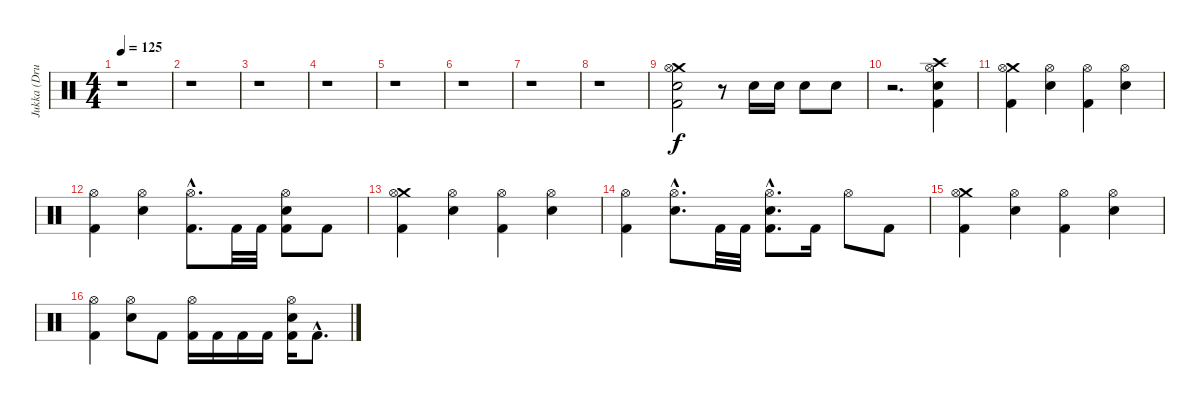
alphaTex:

\track ("Jukka (Drums)" "Jukka (Dru") {instrument percussion}
\staff {score}
\articulation defaults
\ts (4 4)
\tempo 125
\clef neutral
\ks c
r.1{dy f} |
r.1 |
r.1 |
r.1 |
r.1 |
r.1 |
r.1 |
r.1 |
("Crash medium (hit)" "Hi-Hat (open)" "Electric Snare (hit)" "Kick (hit) 2").2 r.8 "Electric Snare (hit)".16 "Electric Snare (hit)".16 "Electric Snare (hit)".8 "Electric Snare (hit)".8 |
r.2{d} ("Crash high (hit)" "Hi-Hat (open)" "Electric Snare (hit)" "Kick (hit) 2").4 |
("Crash medium (hit)" "Hi-Hat (open)" "Kick (hit) 2").4 ("Hi-Hat (open)" "Electric Snare (hit)").4 ("Hi-Hat (open)" "Kick (hit) 2").4 ("Hi-Hat (open)" "Electric Snare (hit)").4 |
("Hi-Hat (open)" "Kick (hit) 2").4 ("Hi-Hat (open)" "Electric Snare (hit)").4 ("Hi-Hat (open)"{hac} "Kick (hit) 2"{hac}).8{d} "Kick (hit) 2".32 "Kick (hit) 2".32 ("Hi-Hat (open)" "Electric Snare (hit)" "Kick (hit) 2").8 "Kick (hit) 2".8 |
("Crash medium (hit)" "Hi-Hat (open)" "Kick (hit) 2").4 ("Hi-Hat (open)" "Electric Snare (hit)").4 ("Hi-Hat (open)" "Kick (hit) 2").4 ("Hi-Hat (open)" "Electric Snare (hit)").4 |
("Hi-Hat (open)" "Kick (hit) 2").4 ("Hi-Hat (open)"{hac} "Electric Snare (hit)"{hac}).8{d} "Kick (hit) 2".32 "Kick (hit) 2".32 ("Hi-Hat (open)"{hac} "Electric Snare (hit)"{hac} "Kick (hit) 2"{hac}).8{d} "Kick (hit) 2".16 "Hi-Hat (open)".8 "Kick (hit) 2".8 |
("Crash medium (hit)" "Hi-Hat (open)" "Kick (hit) 2").4 ("Hi-Hat (open)" "Electric Snare (hit)").4 ("Hi-Hat (open)" "Kick (hit) 2").4 ("Hi-Hat (open)" "Electric Snare (hit)").4 |
("Hi-Hat (open)" "Kick (hit) 2").4 ("Hi-Hat (open)" "Electric Snare (hit)").8 "Kick (hit) 2".8 ("Hi-Hat (open)" "Kick (hit) 2").16 "Kick (hit) 2".16 "Kick (hit) 2".16 "Kick (hit) 2".16 ("Hi-Hat (open)" "Electric Snare (hit)" "Kick (hit) 2").16 "Kick (hit) 2"{hac}.8{d}
